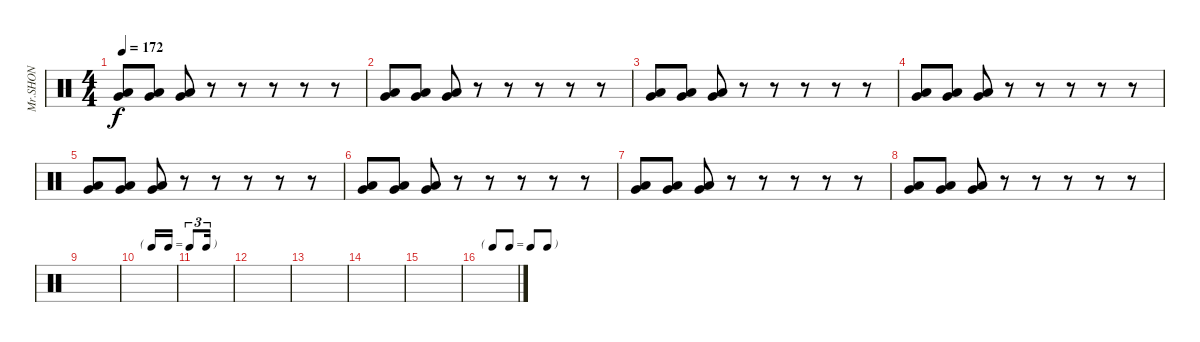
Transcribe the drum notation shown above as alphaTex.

\track ("Mr.SHON" "Mr.SHON") {instrument percussion}
\staff {score}
\articulation defaults
\ts (4 4)
\tempo 172
\clef neutral
\ks c
("Very Low Tom (hit)" "Low Floor Tom (hit)").8{dy f} ("Very Low Tom (hit)" "Low Floor Tom (hit)").8 ("Very Low Tom (hit)" "Low Floor Tom (hit)").8 r.8 r.8 r.8 r.8 r.8 |
("Very Low Tom (hit)" "Low Floor Tom (hit)").8 ("Very Low Tom (hit)" "Low Floor Tom (hit)").8 ("Very Low Tom (hit)" "Low Floor Tom (hit)").8 r.8 r.8 r.8 r.8 r.8 |
("Very Low Tom (hit)" "Low Floor Tom (hit)").8 ("Very Low Tom (hit)" "Low Floor Tom (hit)").8 ("Very Low Tom (hit)" "Low Floor Tom (hit)").8 r.8 r.8 r.8 r.8 r.8 |
("Very Low Tom (hit)" "Low Floor Tom (hit)").8 ("Very Low Tom (hit)" "Low Floor Tom (hit)").8 ("Very Low Tom (hit)" "Low Floor Tom (hit)").8 r.8 r.8 r.8 r.8 r.8 |
("Very Low Tom (hit)" "Low Floor Tom (hit)").8 ("Very Low Tom (hit)" "Low Floor Tom (hit)").8 ("Very Low Tom (hit)" "Low Floor Tom (hit)").8 r.8 r.8 r.8 r.8 r.8 |
("Very Low Tom (hit)" "Low Floor Tom (hit)").8 ("Very Low Tom (hit)" "Low Floor Tom (hit)").8 ("Very Low Tom (hit)" "Low Floor Tom (hit)").8 r.8 r.8 r.8 r.8 r.8 |
("Very Low Tom (hit)" "Low Floor Tom (hit)").8 ("Very Low Tom (hit)" "Low Floor Tom (hit)").8 ("Very Low Tom (hit)" "Low Floor Tom (hit)").8 r.8 r.8 r.8 r.8 r.8 |
("Very Low Tom (hit)" "Low Floor Tom (hit)").8 ("Very Low Tom (hit)" "Low Floor Tom (hit)").8 ("Very Low Tom (hit)" "Low Floor Tom (hit)").8 r.8 r.8 r.8 r.8 r.8 |
|
\tf triplet16th
|
|
|
|
|
|
\tf none
